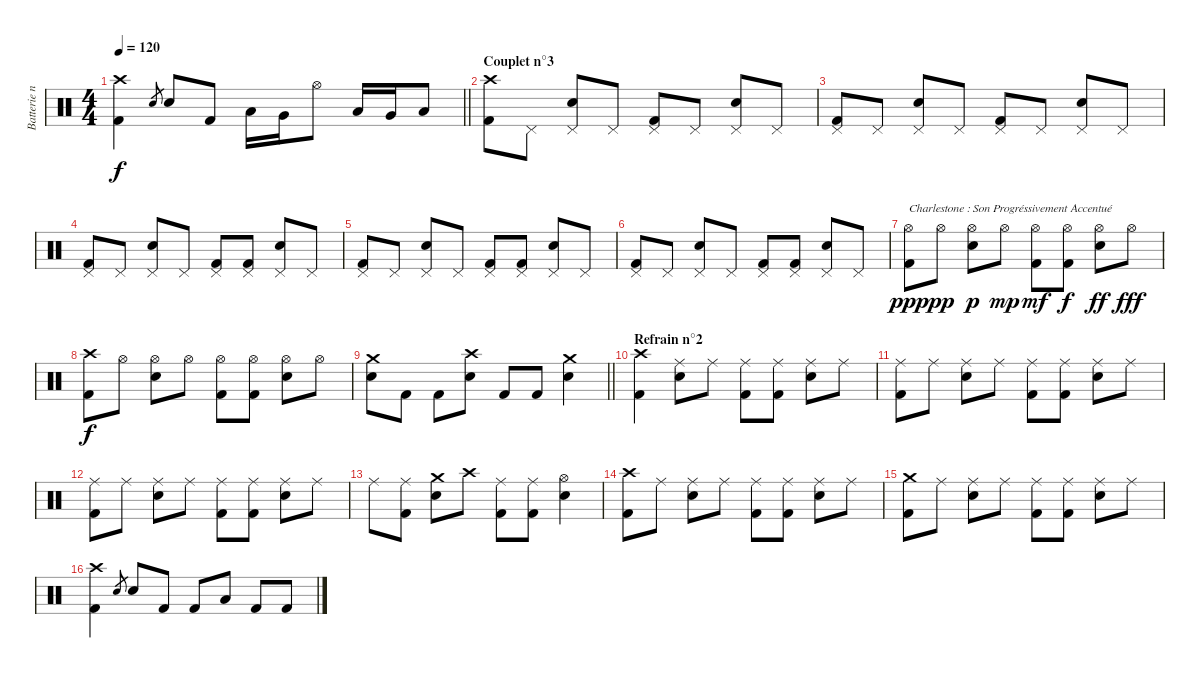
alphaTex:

\track ("Batterie n°3" "Batterie n") {instrument percussion}
\staff {score}
\articulation defaults
\ts (4 4)
\tempo 120
\clef neutral
\barLineRight lightlight
\ks c
("Crash high (hit)" "Kick (hit) 2").4{dy f} "Electric Snare (hit)".8{gr} "Snare (hit) 2".8 "Kick (hit) 2".8 "Low Tom (hit)".16 "Very Low Tom (hit)".16 "Hi-Hat (open)".8 "Low Tom (hit)".16 "Very Low Tom (hit)".16 "Low Floor Tom (hit)".8 |
\section ("" "Couplet n°3")
("Crash high (hit)" "Kick (hit) 2").8 "Pedal Hi-Hat (hit)".8 ("Pedal Hi-Hat (hit)" "Snare (hit) 2").8 "Pedal Hi-Hat (hit)".8 ("Pedal Hi-Hat (hit)" "Kick (hit) 2").8 "Pedal Hi-Hat (hit)".8 ("Pedal Hi-Hat (hit)" "Snare (hit) 2").8 "Pedal Hi-Hat (hit)".8 |
("Pedal Hi-Hat (hit)" "Kick (hit) 2").8 "Pedal Hi-Hat (hit)".8 ("Pedal Hi-Hat (hit)" "Snare (hit) 2").8 "Pedal Hi-Hat (hit)".8 ("Pedal Hi-Hat (hit)" "Kick (hit) 2").8 "Pedal Hi-Hat (hit)".8 ("Pedal Hi-Hat (hit)" "Snare (hit) 2").8 "Pedal Hi-Hat (hit)".8 |
("Pedal Hi-Hat (hit)" "Kick (hit) 2").8 "Pedal Hi-Hat (hit)".8 ("Pedal Hi-Hat (hit)" "Snare (hit) 2").8 "Pedal Hi-Hat (hit)".8 ("Pedal Hi-Hat (hit)" "Kick (hit) 2").8 ("Pedal Hi-Hat (hit)" "Kick (hit) 2").8 ("Pedal Hi-Hat (hit)" "Snare (hit) 2").8 "Pedal Hi-Hat (hit)".8 |
("Pedal Hi-Hat (hit)" "Kick (hit) 2").8 "Pedal Hi-Hat (hit)".8 ("Pedal Hi-Hat (hit)" "Snare (hit) 2").8 "Pedal Hi-Hat (hit)".8 ("Pedal Hi-Hat (hit)" "Kick (hit) 2").8 ("Pedal Hi-Hat (hit)" "Kick (hit) 2").8 ("Pedal Hi-Hat (hit)" "Snare (hit) 2").8 "Pedal Hi-Hat (hit)".8 |
("Pedal Hi-Hat (hit)" "Kick (hit) 2").8 "Pedal Hi-Hat (hit)".8 ("Pedal Hi-Hat (hit)" "Snare (hit) 2").8 "Pedal Hi-Hat (hit)".8 ("Pedal Hi-Hat (hit)" "Kick (hit) 2").8 ("Pedal Hi-Hat (hit)" "Kick (hit) 2").8 ("Pedal Hi-Hat (hit)" "Snare (hit) 2").8 "Pedal Hi-Hat (hit)".8 |
("Hi-Hat (open)" "Kick (hit) 2").8{txt "Charlestone : Son Progréssivement Accentué" dy ppp} "Hi-Hat (open)".8{dy pp} ("Hi-Hat (open)" "Snare (hit) 2").8{dy p} "Hi-Hat (open)".8{dy mp} ("Hi-Hat (open)" "Kick (hit) 2").8{dy mf} ("Hi-Hat (open)" "Kick (hit) 2").8{dy f} ("Hi-Hat (open)" "Snare (hit) 2").8{dy ff} "Hi-Hat (open)".8{dy fff} |
("Crash high (hit)" "Kick (hit) 2").8{dy f} "Hi-Hat (open)".8 ("Hi-Hat (open)" "Snare (hit) 2").8 "Hi-Hat (open)".8 ("Hi-Hat (open)" "Kick (hit) 2").8 ("Hi-Hat (open)" "Kick (hit) 2").8 ("Hi-Hat (open)" "Snare (hit) 2").8 "Hi-Hat (open)".8 |
\barLineRight lightlight
("Crash medium (hit)" "Snare (hit) 2").8 "Kick (hit) 2".8 "Kick (hit) 2".8 ("Crash high (hit)" "Snare (hit) 2").8 "Kick (hit) 2".8 "Kick (hit) 2".8 ("Crash medium (hit)" "Snare (hit) 2").4 |
\section ("" "Refrain n°2")
("Crash high (hit)" "Kick (hit) 2").4 ("Ride (middle)" "Snare (hit) 2").8 "Ride (middle)".8 ("Ride (middle)" "Kick (hit) 2").8 ("Ride (middle)" "Kick (hit) 2").8 ("Ride (middle)" "Snare (hit) 2").8 "Ride (middle)".8 |
("Ride (middle)" "Kick (hit) 2").8 "Ride (middle)".8 ("Ride (middle)" "Snare (hit) 2").8 "Ride (middle)".8 ("Ride (middle)" "Kick (hit) 2").8 ("Ride (middle)" "Kick (hit) 2").8 ("Ride (middle)" "Snare (hit) 2").8 "Ride (middle)".8 |
("Ride (middle)" "Kick (hit) 2").8 "Ride (middle)".8 ("Ride (middle)" "Snare (hit) 2").8 "Ride (middle)".8 ("Ride (middle)" "Kick (hit) 2").8 ("Ride (middle)" "Kick (hit) 2").8 ("Ride (middle)" "Snare (hit) 2").8 "Ride (middle)".8 |
"Ride (middle)".8 ("Ride (middle)" "Kick (hit) 2").8 ("Crash medium (hit)" "Snare (hit) 2").8 "Crash high (hit)".8 ("Ride (middle)" "Kick (hit) 2").8 ("Ride (middle)" "Kick (hit) 2").8 ("Hi-Hat (open)" "Snare (hit) 2").4 |
("Crash high (hit)" "Kick (hit) 2").8 "Ride (middle)".8 ("Ride (middle)" "Snare (hit) 2").8 "Ride (middle)".8 ("Ride (middle)" "Kick (hit) 2").8 ("Ride (middle)" "Kick (hit) 2").8 ("Ride (middle)" "Snare (hit) 2").8 "Ride (middle)".8 |
("Crash medium (hit)" "Kick (hit) 2").8 "Ride (middle)".8 ("Ride (middle)" "Snare (hit) 2").8 "Ride (middle)".8 ("Ride (middle)" "Kick (hit) 2").8 ("Ride (middle)" "Kick (hit) 2").8 ("Ride (middle)" "Snare (hit) 2").8 "Ride (middle)".8 |
("Crash high (hit)" "Kick (hit) 2").4 "Electric Snare (hit)".8{gr} "Snare (hit) 2".8 "Kick (hit) 2".8 "Kick (hit) 2".8 "Low Floor Tom (hit)".8 "Kick (hit) 2".8 "Kick (hit) 2".8
